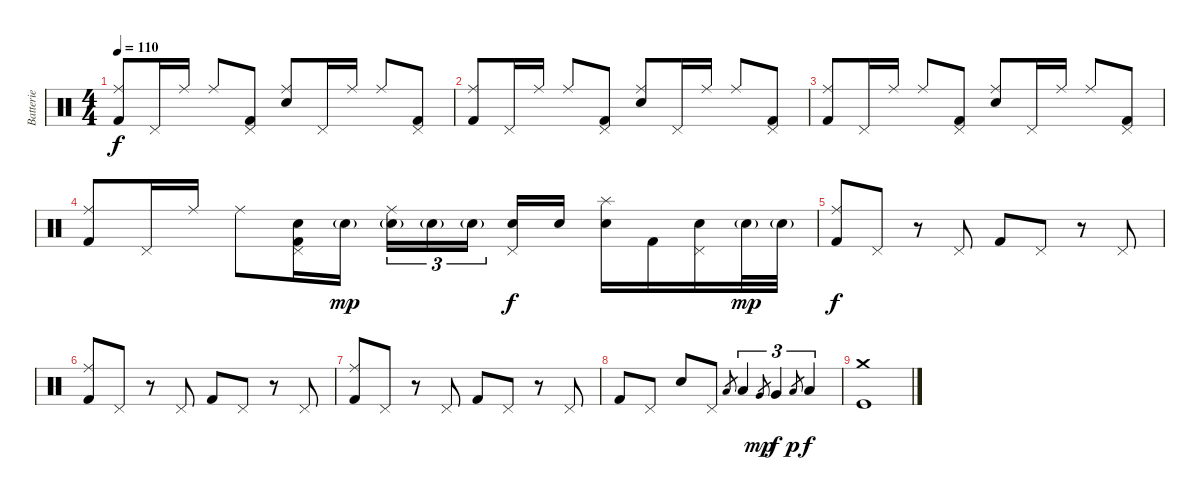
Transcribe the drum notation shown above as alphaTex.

\track ("Batterie" "Batterie") {instrument percussion}
\staff {score}
\articulation defaults
\ts (4 4)
\tempo 110
\clef neutral
\ks c
("Ride (middle)" "Kick (hit) 2").8{dy f} "Pedal Hi-Hat (hit)".16 "Ride (middle)".16 "Ride (middle)".8 ("Pedal Hi-Hat (hit)" "Kick (hit) 2").8 ("Ride (middle)" "Snare (hit) 2").8 "Pedal Hi-Hat (hit)".16 "Ride (middle)".16 "Ride (middle)".8 ("Pedal Hi-Hat (hit)" "Kick (hit) 2").8 |
("Ride (middle)" "Kick (hit) 2").8 "Pedal Hi-Hat (hit)".16 "Ride (middle)".16 "Ride (middle)".8 ("Pedal Hi-Hat (hit)" "Kick (hit) 2").8 ("Ride (middle)" "Snare (hit) 2").8 "Pedal Hi-Hat (hit)".16 "Ride (middle)".16 "Ride (middle)".8 ("Pedal Hi-Hat (hit)" "Kick (hit) 2").8 |
("Ride (middle)" "Kick (hit) 2").8 "Pedal Hi-Hat (hit)".16 "Ride (middle)".16 "Ride (middle)".8 ("Pedal Hi-Hat (hit)" "Kick (hit) 2").8 ("Ride (middle)" "Snare (hit) 2").8 "Pedal Hi-Hat (hit)".16 "Ride (middle)".16 "Ride (middle)".8 ("Pedal Hi-Hat (hit)" "Kick (hit) 2").8 |
("Ride (middle)" "Kick (hit) 2").8 "Pedal Hi-Hat (hit)".16 "Ride (middle)".16 "Ride (middle)".8 ("Pedal Hi-Hat (hit)" "Snare (hit) 2" "Kick (hit) 2").16 "Snare (hit) 2"{g}.16{dy mp} ("Ride (middle)" "Snare (hit) 2"{g}).16{tu (3 2)} "Snare (hit) 2"{g}.16{tu (3 2)} "Snare (hit) 2"{g}.16{tu (3 2) beam splitsecondary} ("Pedal Hi-Hat (hit)" "Snare (hit) 2").16{dy f} "Snare (hit) 2".16 ("Splash (hit)" "Snare (hit) 2").16 "Kick (hit) 2".16 ("Pedal Hi-Hat (hit)" "Snare (hit) 2").16 "Snare (hit) 2"{g}.32{dy mp} "Snare (hit) 2"{g}.32 |
("Ride (middle)" "Kick (hit) 2").8{dy f} "Pedal Hi-Hat (hit)".8 r.8 "Pedal Hi-Hat (hit)".8 "Kick (hit) 2".8 "Pedal Hi-Hat (hit)".8 r.8 "Pedal Hi-Hat (hit)".8 |
("Ride (middle)" "Kick (hit) 2").8 "Pedal Hi-Hat (hit)".8 r.8 "Pedal Hi-Hat (hit)".8 "Kick (hit) 2".8 "Pedal Hi-Hat (hit)".8 r.8 "Pedal Hi-Hat (hit)".8 |
("Ride (middle)" "Kick (hit) 2").8 "Pedal Hi-Hat (hit)".8 r.8 "Pedal Hi-Hat (hit)".8 "Kick (hit) 2".8 "Pedal Hi-Hat (hit)".8 r.8 "Pedal Hi-Hat (hit)".8 |
"Kick (hit) 2".8 "Pedal Hi-Hat (hit)".8 "Snare (hit) 2".8 "Pedal Hi-Hat (hit)".8 "Low Tom (hit)".8{gr} "Low Tom (hit)".4{tu (3 2)} "Very Low Tom (hit)".8{gr dy mp} "Very Low Tom (hit)".4{tu (3 2) dy f} "Low Floor Tom (hit)".8{gr dy p} "Low Floor Tom (hit)".4{tu (3 2) dy f} |
("Crash medium (hit)" "Kick (hit)").1
